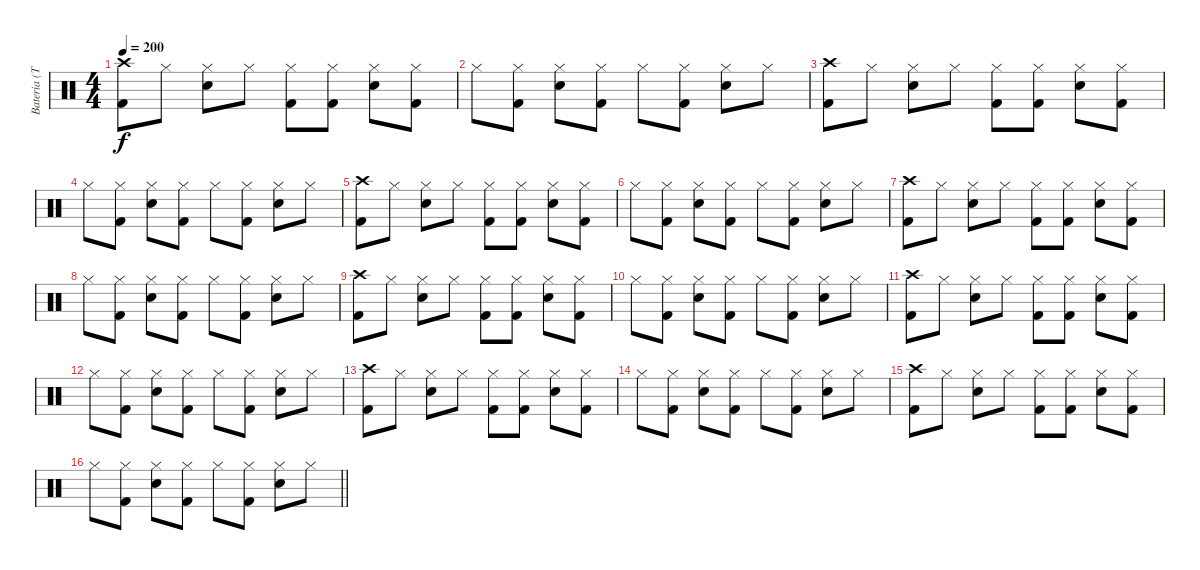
\track ("Bateria (Tré)" "Bateria (T") {instrument percussion}
\staff {score}
\articulation defaults
\ts (4 4)
\tempo 200
\clef neutral
\ks c
("Crash high (hit)" "Kick (hit) 2").8{dy f} "Hi-Hat (closed)".8 ("Hi-Hat (closed)" "Electric Snare (hit)").8 "Hi-Hat (closed)".8 ("Hi-Hat (closed)" "Kick (hit) 2").8 ("Hi-Hat (closed)" "Kick (hit) 2").8 ("Hi-Hat (closed)" "Electric Snare (hit)").8 ("Hi-Hat (closed)" "Kick (hit) 2").8 |
"Hi-Hat (closed)".8 ("Hi-Hat (closed)" "Kick (hit) 2").8 ("Hi-Hat (closed)" "Electric Snare (hit)").8 ("Hi-Hat (closed)" "Kick (hit) 2").8 "Hi-Hat (closed)".8 ("Hi-Hat (closed)" "Kick (hit) 2").8 ("Hi-Hat (closed)" "Electric Snare (hit)").8 "Hi-Hat (closed)".8 |
("Crash high (hit)" "Kick (hit) 2").8 "Hi-Hat (closed)".8 ("Hi-Hat (closed)" "Electric Snare (hit)").8 "Hi-Hat (closed)".8 ("Hi-Hat (closed)" "Kick (hit) 2").8 ("Hi-Hat (closed)" "Kick (hit) 2").8 ("Hi-Hat (closed)" "Electric Snare (hit)").8 ("Hi-Hat (closed)" "Kick (hit) 2").8 |
"Hi-Hat (closed)".8 ("Hi-Hat (closed)" "Kick (hit) 2").8 ("Hi-Hat (closed)" "Electric Snare (hit)").8 ("Hi-Hat (closed)" "Kick (hit) 2").8 "Hi-Hat (closed)".8 ("Hi-Hat (closed)" "Kick (hit) 2").8 ("Hi-Hat (closed)" "Electric Snare (hit)").8 "Hi-Hat (closed)".8 |
("Crash high (hit)" "Kick (hit) 2").8 "Hi-Hat (closed)".8 ("Hi-Hat (closed)" "Electric Snare (hit)").8 "Hi-Hat (closed)".8 ("Hi-Hat (closed)" "Kick (hit) 2").8 ("Hi-Hat (closed)" "Kick (hit) 2").8 ("Hi-Hat (closed)" "Electric Snare (hit)").8 ("Hi-Hat (closed)" "Kick (hit) 2").8 |
"Hi-Hat (closed)".8 ("Hi-Hat (closed)" "Kick (hit) 2").8 ("Hi-Hat (closed)" "Electric Snare (hit)").8 ("Hi-Hat (closed)" "Kick (hit) 2").8 "Hi-Hat (closed)".8 ("Hi-Hat (closed)" "Kick (hit) 2").8 ("Hi-Hat (closed)" "Electric Snare (hit)").8 "Hi-Hat (closed)".8 |
("Crash high (hit)" "Kick (hit) 2").8 "Hi-Hat (closed)".8 ("Hi-Hat (closed)" "Electric Snare (hit)").8 "Hi-Hat (closed)".8 ("Hi-Hat (closed)" "Kick (hit) 2").8 ("Hi-Hat (closed)" "Kick (hit) 2").8 ("Hi-Hat (closed)" "Electric Snare (hit)").8 ("Hi-Hat (closed)" "Kick (hit) 2").8 |
"Hi-Hat (closed)".8 ("Hi-Hat (closed)" "Kick (hit) 2").8 ("Hi-Hat (closed)" "Electric Snare (hit)").8 ("Hi-Hat (closed)" "Kick (hit) 2").8 "Hi-Hat (closed)".8 ("Hi-Hat (closed)" "Kick (hit) 2").8 ("Hi-Hat (closed)" "Electric Snare (hit)").8 "Hi-Hat (closed)".8 |
("Crash high (hit)" "Kick (hit) 2").8 "Hi-Hat (closed)".8 ("Hi-Hat (closed)" "Electric Snare (hit)").8 "Hi-Hat (closed)".8 ("Hi-Hat (closed)" "Kick (hit) 2").8 ("Hi-Hat (closed)" "Kick (hit) 2").8 ("Hi-Hat (closed)" "Electric Snare (hit)").8 ("Hi-Hat (closed)" "Kick (hit) 2").8 |
"Hi-Hat (closed)".8 ("Hi-Hat (closed)" "Kick (hit) 2").8 ("Hi-Hat (closed)" "Electric Snare (hit)").8 ("Hi-Hat (closed)" "Kick (hit) 2").8 "Hi-Hat (closed)".8 ("Hi-Hat (closed)" "Kick (hit) 2").8 ("Hi-Hat (closed)" "Electric Snare (hit)").8 "Hi-Hat (closed)".8 |
("Crash high (hit)" "Kick (hit) 2").8 "Hi-Hat (closed)".8 ("Hi-Hat (closed)" "Electric Snare (hit)").8 "Hi-Hat (closed)".8 ("Hi-Hat (closed)" "Kick (hit) 2").8 ("Hi-Hat (closed)" "Kick (hit) 2").8 ("Hi-Hat (closed)" "Electric Snare (hit)").8 ("Hi-Hat (closed)" "Kick (hit) 2").8 |
"Hi-Hat (closed)".8 ("Hi-Hat (closed)" "Kick (hit) 2").8 ("Hi-Hat (closed)" "Electric Snare (hit)").8 ("Hi-Hat (closed)" "Kick (hit) 2").8 "Hi-Hat (closed)".8 ("Hi-Hat (closed)" "Kick (hit) 2").8 ("Hi-Hat (closed)" "Electric Snare (hit)").8 "Hi-Hat (closed)".8 |
("Crash high (hit)" "Kick (hit) 2").8 "Hi-Hat (closed)".8 ("Hi-Hat (closed)" "Electric Snare (hit)").8 "Hi-Hat (closed)".8 ("Hi-Hat (closed)" "Kick (hit) 2").8 ("Hi-Hat (closed)" "Kick (hit) 2").8 ("Hi-Hat (closed)" "Electric Snare (hit)").8 ("Hi-Hat (closed)" "Kick (hit) 2").8 |
"Hi-Hat (closed)".8 ("Hi-Hat (closed)" "Kick (hit) 2").8 ("Hi-Hat (closed)" "Electric Snare (hit)").8 ("Hi-Hat (closed)" "Kick (hit) 2").8 "Hi-Hat (closed)".8 ("Hi-Hat (closed)" "Kick (hit) 2").8 ("Hi-Hat (closed)" "Electric Snare (hit)").8 "Hi-Hat (closed)".8 |
("Crash high (hit)" "Kick (hit) 2").8 "Hi-Hat (closed)".8 ("Hi-Hat (closed)" "Electric Snare (hit)").8 "Hi-Hat (closed)".8 ("Hi-Hat (closed)" "Kick (hit) 2").8 ("Hi-Hat (closed)" "Kick (hit) 2").8 ("Hi-Hat (closed)" "Electric Snare (hit)").8 ("Hi-Hat (closed)" "Kick (hit) 2").8 |
\barLineRight lightlight "Hi-Hat (closed)".8
("Hi-Hat (closed)" "Kick (hit) 2").8 ("Hi-Hat (closed)" "Electric Snare (hit)").8 ("Hi-Hat (closed)" "Kick (hit) 2").8 "Hi-Hat (closed)".8 ("Hi-Hat (closed)" "Kick (hit) 2").8 ("Hi-Hat (closed)" "Electric Snare (hit)").8 "Hi-Hat (closed)".8
